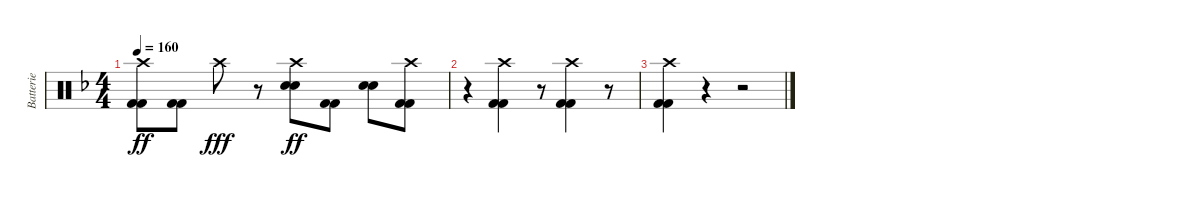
\track ("Batterie" "Batterie") {instrument percussion}
\staff {score}
\articulation defaults
\ts (4 4)
\tempo 160
\clef neutral
\ks f
("Crash high (hit)" "Kick (hit) 2" "Kick (hit) 2").8{dy ff} ("Kick (hit) 2" "Kick (hit) 2").8 "Crash high (hit)".8{dy fff} r.8 ("Crash high (hit)" "Electric Snare (hit)" "Electric Snare (hit)").8{dy ff} ("Kick (hit) 2" "Kick (hit) 2").8 ("Electric Snare (hit)" "Electric Snare (hit)").8 ("Crash high (hit)" "Kick (hit) 2" "Kick (hit) 2").8 |
r.4 ("Crash high (hit)" "Kick (hit) 2" "Kick (hit) 2").4 r.8 ("Crash high (hit)" "Kick (hit) 2" "Kick (hit) 2").4 r.8 |
("Crash high (hit)" "Kick (hit) 2" "Kick (hit) 2").4 r.4 r.2
